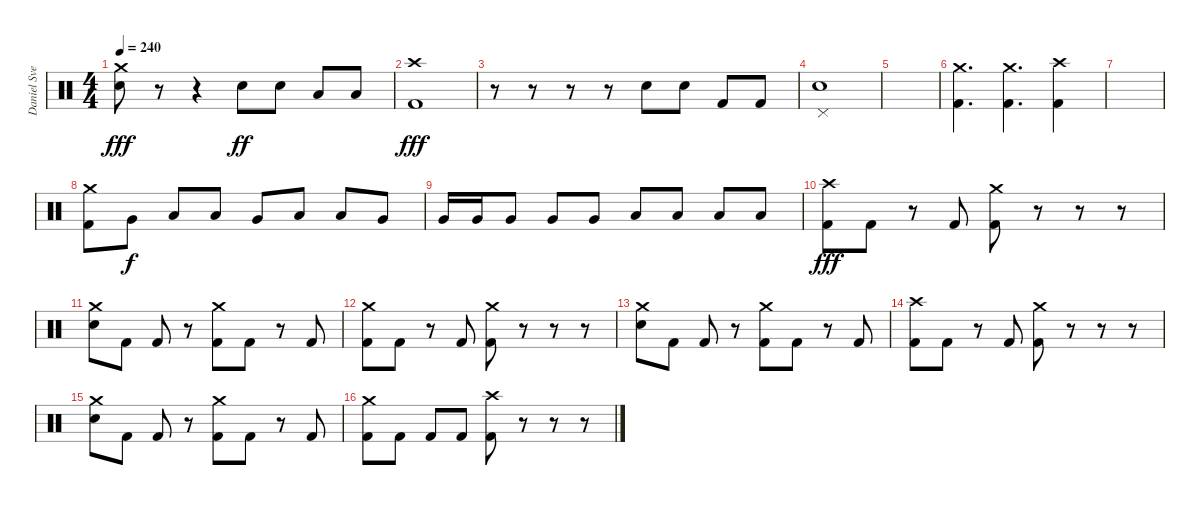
\track ("Daniel Svensson" "Daniel Sve") {instrument percussion}
\staff {score}
\articulation defaults
\ts (4 4)
\tempo 240
\clef neutral
\ks c
("Crash medium (hit)" "Electric Snare (hit)").8{dy fff} r.8 r.4 "Electric Snare (hit)".8{dy ff} "Electric Snare (hit)".8 "Low Floor Tom (hit)".8 "Low Floor Tom (hit)".8 |
("Crash high (hit)" "Kick (hit) 2").1{dy fff} |
r.8 r.8 r.8 r.8 "Electric Snare (hit)".8 "Electric Snare (hit)".8 "Kick (hit) 2".8 "Kick (hit) 2".8 |
("Pedal Hi-Hat (hit)" "Electric Snare (hit)").1 |
|
("Crash medium (hit)" "Kick (hit) 2").4{d} ("Crash medium (hit)" "Kick (hit) 2").4{d} ("Crash high (hit)" "Kick (hit) 2").4 |
|
("Crash medium (hit)" "Kick (hit) 2").8 "Very Low Tom (hit)".8{dy f} "Low Tom (hit)".8 "Low Tom (hit)".8 "Very Low Tom (hit)".8 "Low Tom (hit)".8 "Low Tom (hit)".8 "Very Low Tom (hit)".8 |
"Very Low Tom (hit)".16 "Very Low Tom (hit)".16 "Very Low Tom (hit)".8 "Very Low Tom (hit)".8 "Very Low Tom (hit)".8 "Low Floor Tom (hit)".8 "Low Floor Tom (hit)".8 "Low Floor Tom (hit)".8 "Low Floor Tom (hit)".8 |
("Crash high (hit)" "Kick (hit) 2").8{dy fff} "Kick (hit) 2".8 r.8 "Kick (hit) 2".8 ("Crash medium (hit)" "Kick (hit) 2").8 r.8 r.8 r.8 |
("Crash medium (hit)" "Electric Snare (hit)").8 "Kick (hit) 2".8 "Kick (hit) 2".8 r.8 ("Crash medium (hit)" "Kick (hit) 2").8 "Kick (hit) 2".8 r.8 "Kick (hit) 2".8 |
("Crash medium (hit)" "Kick (hit) 2").8 "Kick (hit) 2".8 r.8 "Kick (hit) 2".8 ("Crash medium (hit)" "Kick (hit) 2").8 r.8 r.8 r.8 |
("Crash medium (hit)" "Electric Snare (hit)").8 "Kick (hit) 2".8 "Kick (hit) 2".8 r.8 ("Crash medium (hit)" "Kick (hit) 2").8 "Kick (hit) 2".8 r.8 "Kick (hit) 2".8 |
("Crash high (hit)" "Kick (hit) 2").8 "Kick (hit) 2".8 r.8 "Kick (hit) 2".8 ("Crash medium (hit)" "Kick (hit) 2").8 r.8 r.8 r.8 |
("Crash medium (hit)" "Electric Snare (hit)").8 "Kick (hit) 2".8 "Kick (hit) 2".8 r.8 ("Crash medium (hit)" "Kick (hit) 2").8 "Kick (hit) 2".8 r.8 "Kick (hit) 2".8 |
("Crash medium (hit)" "Kick (hit) 2").8 "Kick (hit) 2".8 "Kick (hit) 2".8 "Kick (hit) 2".8 ("Crash high (hit)" "Kick (hit) 2").8 r.8 r.8 r.8
